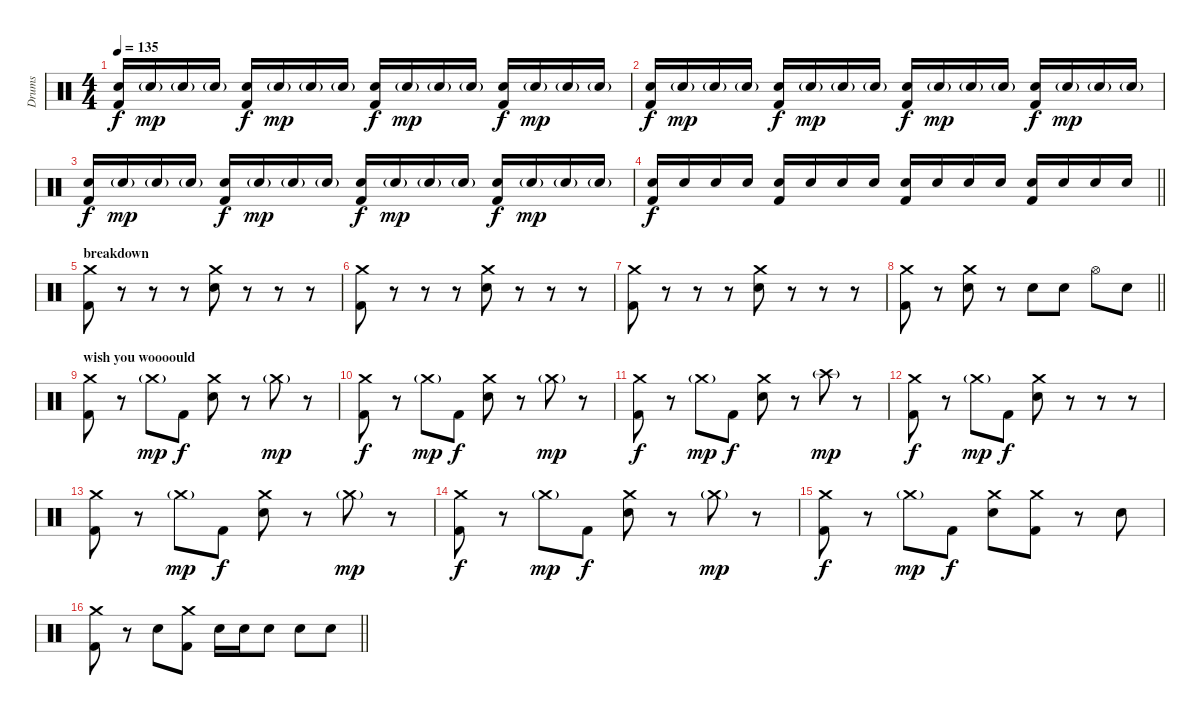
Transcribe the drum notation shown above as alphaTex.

\track ("Drums" "Drums") {instrument percussion}
\staff {score}
\articulation defaults
\ts (4 4)
\tempo 135
\clef neutral
\ks c
("Electric Snare (hit)" "Kick (hit) 2").16{dy f} "Electric Snare (hit)"{g}.16{dy mp} "Electric Snare (hit)"{g}.16 "Electric Snare (hit)"{g}.16 ("Electric Snare (hit)" "Kick (hit) 2").16{dy f} "Electric Snare (hit)"{g}.16{dy mp} "Electric Snare (hit)"{g}.16 "Electric Snare (hit)"{g}.16 ("Electric Snare (hit)" "Kick (hit) 2").16{dy f} "Electric Snare (hit)"{g}.16{dy mp} "Electric Snare (hit)"{g}.16 "Electric Snare (hit)"{g}.16 ("Electric Snare (hit)" "Kick (hit) 2").16{dy f} "Electric Snare (hit)"{g}.16{dy mp} "Electric Snare (hit)"{g}.16 "Electric Snare (hit)"{g}.16 |
("Electric Snare (hit)" "Kick (hit) 2").16{dy f} "Electric Snare (hit)"{g}.16{dy mp volume 13} "Electric Snare (hit)"{g}.16 "Electric Snare (hit)"{g}.16 ("Electric Snare (hit)" "Kick (hit) 2").16{dy f} "Electric Snare (hit)"{g}.16{dy mp} "Electric Snare (hit)"{g}.16 "Electric Snare (hit)"{g}.16 ("Electric Snare (hit)" "Kick (hit) 2").16{dy f} "Electric Snare (hit)"{g}.16{dy mp} "Electric Snare (hit)"{g}.16 "Electric Snare (hit)"{g}.16 ("Electric Snare (hit)" "Kick (hit) 2").16{dy f} "Electric Snare (hit)"{g}.16{dy mp} "Electric Snare (hit)"{g}.16 "Electric Snare (hit)"{g}.16 |
("Electric Snare (hit)" "Kick (hit) 2").16{dy f} "Electric Snare (hit)"{g}.16{dy mp} "Electric Snare (hit)"{g}.16 "Electric Snare (hit)"{g}.16 ("Electric Snare (hit)" "Kick (hit) 2").16{dy f} "Electric Snare (hit)"{g}.16{dy mp} "Electric Snare (hit)"{g}.16 "Electric Snare (hit)"{g}.16 ("Electric Snare (hit)" "Kick (hit) 2").16{dy f} "Electric Snare (hit)"{g}.16{dy mp} "Electric Snare (hit)"{g}.16 "Electric Snare (hit)"{g}.16 ("Electric Snare (hit)" "Kick (hit) 2").16{dy f} "Electric Snare (hit)"{g}.16{dy mp} "Electric Snare (hit)"{g}.16 "Electric Snare (hit)"{g}.16 |
\barLineRight lightlight
("Electric Snare (hit)" "Kick (hit) 2").16{dy f} "Electric Snare (hit)".16 "Electric Snare (hit)".16 "Electric Snare (hit)".16 ("Electric Snare (hit)" "Kick (hit) 2").16 "Electric Snare (hit)".16 "Electric Snare (hit)".16 "Electric Snare (hit)".16 ("Electric Snare (hit)" "Kick (hit) 2").16 "Electric Snare (hit)".16 "Electric Snare (hit)".16 "Electric Snare (hit)".16 ("Electric Snare (hit)" "Kick (hit) 2").16 "Electric Snare (hit)".16 "Electric Snare (hit)".16 "Electric Snare (hit)".16 |
\section ("" "breakdown")
("Kick (hit) 2" "Crash medium (hit)").8 r.8 r.8 r.8 ("Electric Snare (hit)" "Crash medium (hit)").8 r.8 r.8 r.8 |
("Kick (hit) 2" "Crash medium (hit)").8 r.8 r.8 r.8 ("Electric Snare (hit)" "Crash medium (hit)").8 r.8 r.8 r.8 |
("Kick (hit) 2" "Crash medium (hit)").8 r.8 r.8 r.8 ("Electric Snare (hit)" "Crash medium (hit)").8 r.8 r.8 r.8 |
\barLineRight lightlight
("Kick (hit) 2" "Crash medium (hit)").8 r.8 ("Electric Snare (hit)" "Crash medium (hit)").8 r.8 "Electric Snare (hit)".8 "Electric Snare (hit)".8 "Hi-Hat (open)".8 "Electric Snare (hit)".8 |
\section ("" "wish you woooould")
("Kick (hit) 2" "Crash medium (hit)").8 r.8 "Crash medium (hit)"{g}.8{dy mp} "Kick (hit) 2".8{dy f} ("Electric Snare (hit)" "Crash medium (hit)").8 r.8 "Crash medium (hit)"{g}.8{dy mp} r.8 |
("Kick (hit) 2" "Crash medium (hit)").8{dy f} r.8 "Crash medium (hit)"{g}.8{dy mp} "Kick (hit) 2".8{dy f} ("Electric Snare (hit)" "Crash medium (hit)").8 r.8 "Crash medium (hit)"{g}.8{dy mp} r.8 |
("Kick (hit) 2" "Crash medium (hit)").8{dy f} r.8 "Crash medium (hit)"{g}.8{dy mp} "Kick (hit) 2".8{dy f} ("Electric Snare (hit)" "Crash medium (hit)").8 r.8 "Crash high (hit)"{g}.8{dy mp} r.8 |
("Kick (hit) 2" "Crash medium (hit)").8{dy f} r.8 "Crash medium (hit)"{g}.8{dy mp} "Kick (hit) 2".8{dy f} ("Electric Snare (hit)" "Crash medium (hit)").8 r.8 r.8 r.8 |
("Kick (hit) 2" "Crash medium (hit)").8 r.8 "Crash medium (hit)"{g}.8{dy mp} "Kick (hit) 2".8{dy f} ("Electric Snare (hit)" "Crash medium (hit)").8 r.8 "Crash medium (hit)"{g}.8{dy mp} r.8 |
("Kick (hit) 2" "Crash medium (hit)").8{dy f} r.8 "Crash medium (hit)"{g}.8{dy mp} "Kick (hit) 2".8{dy f} ("Electric Snare (hit)" "Crash medium (hit)").8 r.8 "Crash medium (hit)"{g}.8{dy mp} r.8 |
("Kick (hit) 2" "Crash medium (hit)").8{dy f} r.8 "Crash medium (hit)"{g}.8{dy mp} "Kick (hit) 2".8{dy f} ("Electric Snare (hit)" "Crash medium (hit)").8 ("Kick (hit) 2" "Crash medium (hit)").8 r.8 "Electric Snare (hit)".8 |
\barLineRight lightlight
("Kick (hit) 2" "Crash medium (hit)").8 r.8 "Electric Snare (hit)".8 ("Kick (hit) 2" "Crash medium (hit)").8 "Electric Snare (hit)".16 "Electric Snare (hit)".16 "Electric Snare (hit)".8 "Electric Snare (hit)".8 "Electric Snare (hit)".8
